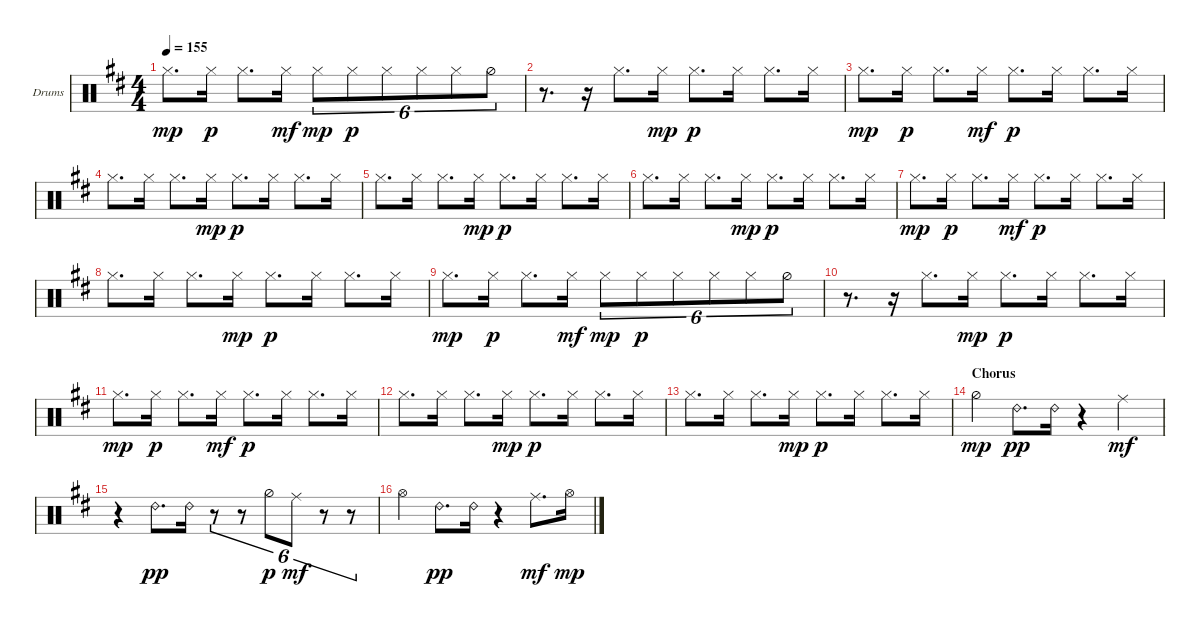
\bracketExtendMode groupsimilarinstruments
\firstSystemTrackNameOrientation horizontal
\otherSystemsTrackNameOrientation horizontal
\track ("Perc" "Drums") {instrument percussion}
\staff {score}
\articulation defaults
\ts (4 4)
\tempo 155
\clef neutral
\ks d "Hi-Hat (closed)".8{d dy mp} "Hi-Hat (closed)".16{dy p} "Hi-Hat (closed)".8{d} "Hi-Hat (closed)".16{dy mf} "Hi-Hat (closed)".8{tu (6 4) dy mp} "Hi-Hat (closed)".8{tu (6 4) dy p} "Hi-Hat (closed)".8{tu (6 4)} "Hi-Hat (closed)".8{tu (6 4)} "Hi-Hat (closed)".8{tu (6 4)} "Hi-Hat (half)".8{tu (6 4)}
|
r.8{d} r.16 "Hi-Hat (closed)".8{d} "Hi-Hat (closed)".16{dy mp} "Hi-Hat (closed)".8{d dy p} "Hi-Hat (closed)".16 "Hi-Hat (closed)".8{d} "Hi-Hat (closed)".16 |
"Hi-Hat (closed)".8{d dy mp} "Hi-Hat (closed)".16{dy p} "Hi-Hat (closed)".8{d} "Hi-Hat (closed)".16{dy mf} "Hi-Hat (closed)".8{d dy p} "Hi-Hat (closed)".16 "Hi-Hat (closed)".8{d} "Hi-Hat (closed)".16 |
"Hi-Hat (closed)".8{d} "Hi-Hat (closed)".16 "Hi-Hat (closed)".8{d} "Hi-Hat (closed)".16{dy mp} "Hi-Hat (closed)".8{d dy p} "Hi-Hat (closed)".16 "Hi-Hat (closed)".8{d} "Hi-Hat (closed)".16 |
"Hi-Hat (closed)".8{d} "Hi-Hat (closed)".16 "Hi-Hat (closed)".8{d} "Hi-Hat (closed)".16{dy mp} "Hi-Hat (closed)".8{d dy p} "Hi-Hat (closed)".16 "Hi-Hat (closed)".8{d} "Hi-Hat (closed)".16 |
"Hi-Hat (closed)".8{d} "Hi-Hat (closed)".16 "Hi-Hat (closed)".8{d} "Hi-Hat (closed)".16{dy mp} "Hi-Hat (closed)".8{d dy p} "Hi-Hat (closed)".16 "Hi-Hat (closed)".8{d} "Hi-Hat (closed)".16 |
"Hi-Hat (closed)".8{d dy mp} "Hi-Hat (closed)".16{dy p} "Hi-Hat (closed)".8{d} "Hi-Hat (closed)".16{dy mf} "Hi-Hat (closed)".8{d dy p} "Hi-Hat (closed)".16 "Hi-Hat (closed)".8{d} "Hi-Hat (closed)".16 |
"Hi-Hat (closed)".8{d} "Hi-Hat (closed)".16 "Hi-Hat (closed)".8{d} "Hi-Hat (closed)".16{dy mp} "Hi-Hat (closed)".8{d dy p} "Hi-Hat (closed)".16 "Hi-Hat (closed)".8{d} "Hi-Hat (closed)".16 |
"Hi-Hat (closed)".8{d dy mp} "Hi-Hat (closed)".16{dy p} "Hi-Hat (closed)".8{d} "Hi-Hat (closed)".16{dy mf} "Hi-Hat (closed)".8{tu (6 4) dy mp} "Hi-Hat (closed)".8{tu (6 4) dy p} "Hi-Hat (closed)".8{tu (6 4)} "Hi-Hat (closed)".8{tu (6 4)} "Hi-Hat (closed)".8{tu (6 4)} "Hi-Hat (half)".8{tu (6 4)} |
r.8{d} r.16 "Hi-Hat (closed)".8{d} "Hi-Hat (closed)".16{dy mp} "Hi-Hat (closed)".8{d dy p} "Hi-Hat (closed)".16 "Hi-Hat (closed)".8{d} "Hi-Hat (closed)".16 |
"Hi-Hat (closed)".8{d dy mp} "Hi-Hat (closed)".16{dy p} "Hi-Hat (closed)".8{d} "Hi-Hat (closed)".16{dy mf} "Hi-Hat (closed)".8{d dy p} "Hi-Hat (closed)".16 "Hi-Hat (closed)".8{d} "Hi-Hat (closed)".16 |
"Hi-Hat (closed)".8{d} "Hi-Hat (closed)".16 "Hi-Hat (closed)".8{d} "Hi-Hat (closed)".16{dy mp} "Hi-Hat (closed)".8{d dy p} "Hi-Hat (closed)".16 "Hi-Hat (closed)".8{d} "Hi-Hat (closed)".16 |
"Hi-Hat (closed)".8{d} "Hi-Hat (closed)".16 "Hi-Hat (closed)".8{d} "Hi-Hat (closed)".16{dy mp} "Hi-Hat (closed)".8{d dy p} "Hi-Hat (closed)".16 "Hi-Hat (closed)".8{d} "Hi-Hat (closed)".16 |
\section ("" "Chorus")
"Hi-Hat (half)".4{dy mp} "Ride (bell) 2".8{d dy pp} "Ride (bell) 2".16 r.4 "Ride (middle)".4{dy mf} |
r.4 "Ride (bell) 2".8{d dy pp} "Ride (bell) 2".16 r.8{tu (6 4)} r.8{tu (6 4)} "Hi-Hat (half)".8{tu (6 4) dy p} "Ride (middle)".8{tu (6 4) dy mf} r.8{tu (6 4)} r.8{tu (6 4)} |
"Hi-Hat (open)".4 "Ride (bell) 2".8{d dy pp} "Ride (bell) 2".16 r.4 "Ride (middle)".8{d dy mf} "Hi-Hat (open)".16{dy mp}
